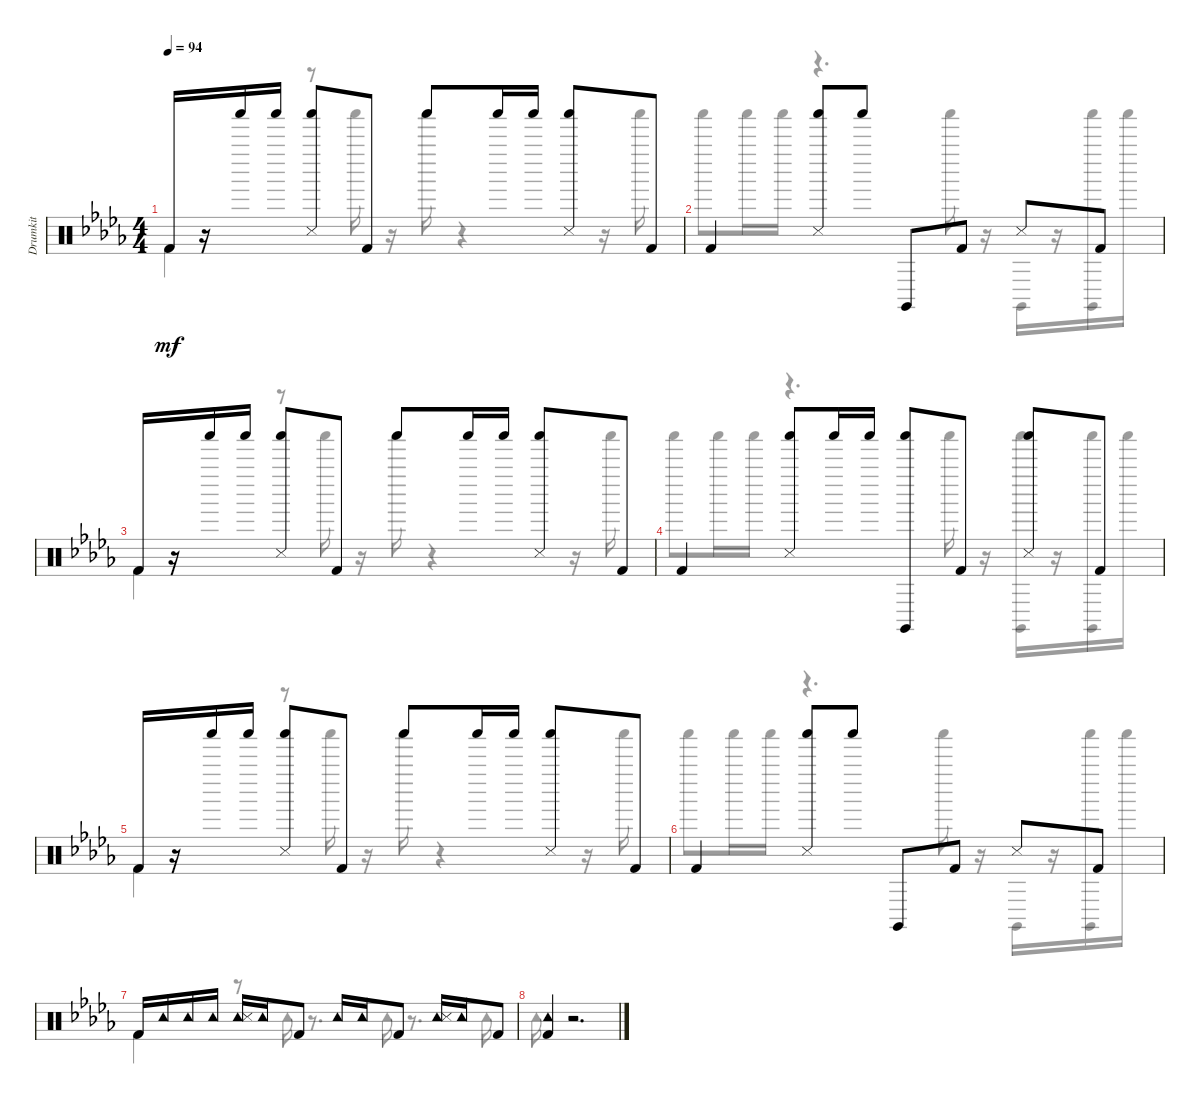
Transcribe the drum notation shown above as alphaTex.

\track ("Drumkit" "Drumkit") {instrument percussion}
\staff {score}
\articulation defaults
\voice
\ts (4 4)
\tempo 94
\clef neutral
\ks bbminor "Kick (hit) 2".16{dy mf}
r.16 "Shaker (hit)".16 "Shaker (hit)".16 ("Snare (side stick) 3" "Shaker (hit)").8 "Kick (hit) 2".8 "Shaker (hit)".8 "Shaker (hit)".16 "Shaker (hit)".16 ("Snare (side stick) 3" "Shaker (hit)").8 "Kick (hit) 2".8 |
"Kick (hit) 2".4 ("Shaker (hit)" "Snare (side stick) 3").8 "Shaker (hit)".8 "Claves (hit)".8 "Kick (hit) 2".8 "Snare (side stick) 3".8 "Kick (hit) 2".8 |
"Kick (hit) 2".16 r.16 "Shaker (hit)".16 "Shaker (hit)".16 ("Snare (side stick) 3" "Shaker (hit)").8 "Kick (hit) 2".8 "Shaker (hit)".8 "Shaker (hit)".16 "Shaker (hit)".16 ("Shaker (hit)" "Snare (side stick) 3").8 "Kick (hit) 2".8 |
"Kick (hit) 2".4 ("Snare (side stick) 3" "Shaker (hit)").8 "Shaker (hit)".16 "Shaker (hit)".16 ("Shaker (hit)" "Claves (hit)").8 "Kick (hit) 2".8 ("Snare (side stick) 3" "Shaker (hit)").8 "Kick (hit) 2".8 |
"Kick (hit) 2".16 r.16 "Shaker (hit)".16 "Shaker (hit)".16 ("Snare (side stick) 3" "Shaker (hit)").8 "Kick (hit) 2".8 "Shaker (hit)".8 "Shaker (hit)".16 "Shaker (hit)".16 ("Snare (side stick) 3" "Shaker (hit)").8 "Kick (hit) 2".8 |
"Kick (hit) 2".4 ("Snare (side stick) 3" "Shaker (hit)").8 "Shaker (hit)".8 "Claves (hit)".8 "Kick (hit) 2".8 "Snare (side stick) 3".8 "Kick (hit) 2".8 |
"Kick (hit) 2".16 "Tambourine (hit)".16 "Tambourine (hit)".16 "Tambourine (hit)".16 ("Tambourine (hit)" "Snare (side stick) 3").16 "Tambourine (hit)".16 "Kick (hit) 2".8 "Tambourine (hit)".16 "Tambourine (hit)".16 "Kick (hit) 2".8 ("Tambourine (hit)" "Snare (side stick) 3").16 "Tambourine (hit)".16 "Kick (hit) 2".8 |
("Kick (hit) 2" "Tambourine (hit)").4 r.2{d}
\voice
\clef neutral
\ottava regular
\simile none
\ks bbminor "Kick (hit) 2".4{dy mf}
r.8 "Shaker (hit)".16 r.16 "Shaker (hit)".16 r.4 r.16 "Shaker (hit)".16 |
"Shaker (hit)".8 "Shaker (hit)".16 "Shaker (hit)".16 r.4{d} "Shaker (hit)".16 r.16 "Claves (hit)".16 r.16 ("Claves (hit)" "Shaker (hit)").16 "Shaker (hit)".16 |
"Kick (hit) 2".4 r.8 "Shaker (hit)".16 r.16 "Shaker (hit)".16 r.4 r.16 "Shaker (hit)".16 |
"Shaker (hit)".8 "Shaker (hit)".16 "Shaker (hit)".16 r.4{d} "Shaker (hit)".16 r.16 ("Claves (hit)" "Shaker (hit)").16 r.16 ("Shaker (hit)" "Claves (hit)").16 "Shaker (hit)".16 |
"Kick (hit) 2".4 r.8 "Shaker (hit)".16 r.16 "Shaker (hit)".16 r.4 r.16 "Shaker (hit)".16 |
"Shaker (hit)".8 "Shaker (hit)".16 "Shaker (hit)".16 r.4{d} "Shaker (hit)".16 r.16 "Claves (hit)".16 r.16 ("Claves (hit)" "Shaker (hit)").16 "Shaker (hit)".16 |
"Kick (hit) 2".4 r.8 "Tambourine (hit)".16 r.8{d} "Tambourine (hit)".16 r.8{d} "Tambourine (hit)".16 |
"Tambourine (hit)".16
